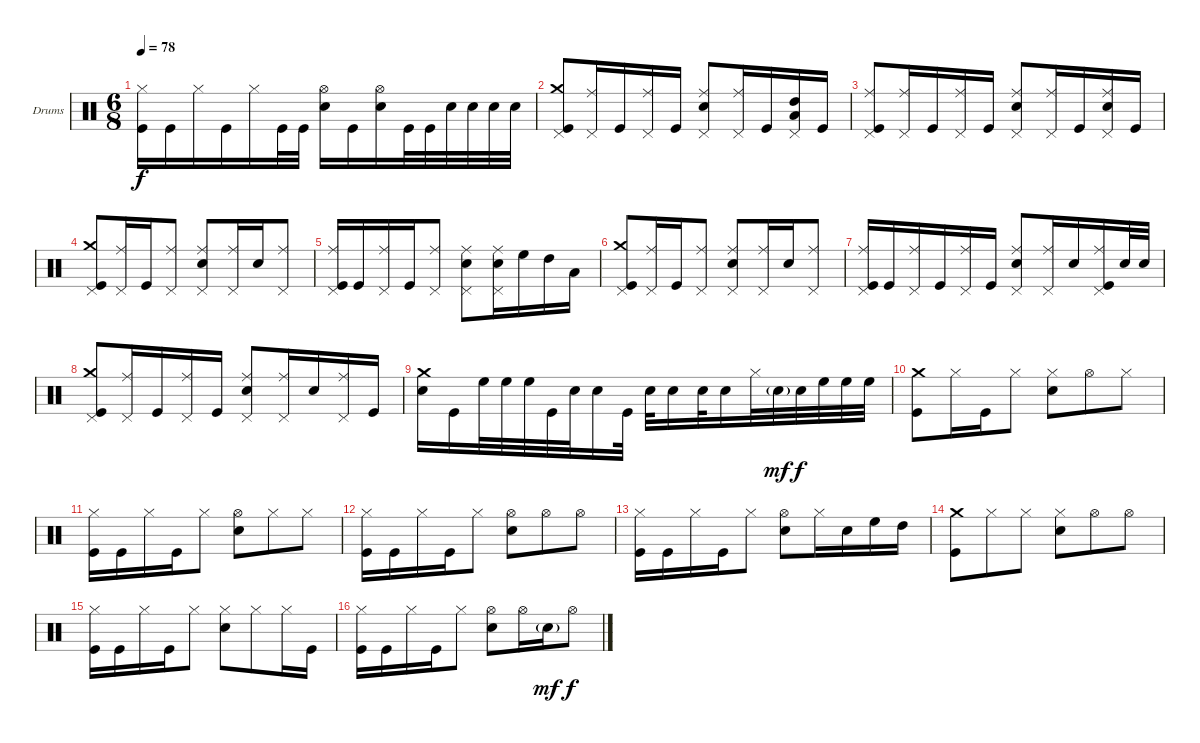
\defaultSystemsLayout 4
\bracketExtendMode groupsimilarinstruments
\firstSystemTrackNameOrientation horizontal
\otherSystemsTrackNameOrientation horizontal
\track ("Drums" "Drums") {instrument percussion}
\staff {score}
\articulation defaults
\ts (6 8)
\tempo 78
\clef neutral
\scale
0.333333
\ks c
("Hi-Hat (closed)" "Kick (hit)").16{dy f} "Kick (hit)".16 "Hi-Hat (closed)".16 "Kick (hit)".16 "Hi-Hat (closed)".16 "Kick (hit)".32 "Kick (hit)".32 ("Hi-Hat (open)" "Snare (hit) 2").16 "Kick (hit)".16 ("Hi-Hat (open)" "Snare (hit) 2").16 "Kick (hit)".32 "Kick (hit)".32 "Snare (hit) 2".32 "Snare (hit) 2".32 "Snare (hit) 2".32 "Snare (hit) 2".32 |
\scale
0.333333 ("Crash medium (hit)" "Pedal Hi-Hat (hit)" "Kick (hit)").8 ("Ride (middle)" "Pedal Hi-Hat (hit)").16 "Kick (hit)".16 ("Ride (middle)" "Pedal Hi-Hat (hit)").16 "Kick (hit)".16 ("Ride (middle)" "Pedal Hi-Hat (hit)" "Snare (hit) 2").8 ("Ride (middle)" "Pedal Hi-Hat (hit)").16 "Kick (hit)".16 ("Pedal Hi-Hat (hit)" "High Tom (hit)" "Low Tom (hit)").16 "Kick (hit)".16 |
\scale
0.333333 ("Ride (middle)" "Pedal Hi-Hat (hit)" "Kick (hit)").8 ("Ride (middle)" "Pedal Hi-Hat (hit)").16 "Kick (hit)".16 ("Ride (middle)" "Pedal Hi-Hat (hit)").16 "Kick (hit)".16 ("Ride (middle)" "Pedal Hi-Hat (hit)" "Snare (hit) 2").8 ("Ride (middle)" "Pedal Hi-Hat (hit)").16 "Kick (hit)".16 ("Ride (middle)" "Pedal Hi-Hat (hit)" "Snare (hit) 2").16 "Kick (hit)".16 |
\scale
0.333333 ("Crash medium (hit)" "Pedal Hi-Hat (hit)" "Kick (hit)").8 ("Ride (middle)" "Pedal Hi-Hat (hit)").16 "Kick (hit)".16 ("Ride (middle)" "Pedal Hi-Hat (hit)").8 ("Ride (middle)" "Pedal Hi-Hat (hit)" "Snare (hit) 2").8 ("Ride (middle)" "Pedal Hi-Hat (hit)").16 "Snare (hit) 2".16 ("Ride (middle)" "Pedal Hi-Hat (hit)").8 |
\scale
0.333333 ("Ride (middle)" "Pedal Hi-Hat (hit)" "Kick (hit)").16 "Kick (hit)".16 ("Ride (middle)" "Pedal Hi-Hat (hit)").16 "Kick (hit)".16 ("Ride (middle)" "Pedal Hi-Hat (hit)").8 ("Ride (middle)" "Pedal Hi-Hat (hit)" "Snare (hit) 2").8 ("Ride (middle)" "Pedal Hi-Hat (hit)" "Snare (hit) 2").16 "High Floor Tom (hit)".16 "High Tom (hit)".16 "Low Tom (hit)".16 |
\scale
0.333333 ("Crash medium (hit)" "Pedal Hi-Hat (hit)" "Kick (hit)").8 ("Ride (middle)" "Pedal Hi-Hat (hit)").16 "Kick (hit)".16 ("Ride (middle)" "Pedal Hi-Hat (hit)").8 ("Ride (middle)" "Pedal Hi-Hat (hit)" "Snare (hit) 2").8 ("Ride (middle)" "Pedal Hi-Hat (hit)").16 "Snare (hit) 2".16 ("Ride (middle)" "Pedal Hi-Hat (hit)").8 |
\scale
0.333333 ("Ride (middle)" "Pedal Hi-Hat (hit)" "Kick (hit)").16 "Kick (hit)".16 ("Ride (middle)" "Pedal Hi-Hat (hit)").16 "Kick (hit)".16 ("Ride (middle)" "Pedal Hi-Hat (hit)").16 "Kick (hit)".16 ("Ride (middle)" "Pedal Hi-Hat (hit)" "Snare (hit) 2").8 ("Ride (middle)" "Pedal Hi-Hat (hit)").16 "Snare (hit) 2".16 ("Ride (middle)" "Pedal Hi-Hat (hit)" "Kick (hit)").16 "Snare (hit) 2".32 "Snare (hit) 2".32 |
\scale
0.333333 ("Crash medium (hit)" "Pedal Hi-Hat (hit)" "Kick (hit)").8 ("Ride (middle)" "Pedal Hi-Hat (hit)").16 "Kick (hit)".16 ("Ride (middle)" "Pedal Hi-Hat (hit)").16 "Kick (hit)".16 ("Ride (middle)" "Pedal Hi-Hat (hit)" "Snare (hit) 2").8 ("Ride (middle)" "Pedal Hi-Hat (hit)").16 "Snare (hit) 2".16 ("Ride (middle)" "Pedal Hi-Hat (hit)").16 "Kick (hit)".16 |
\scale
0.333333 ("Crash medium (hit)" "Snare (hit) 2").16 "Kick (hit)".16 "High Floor Tom (hit)".32 "High Floor Tom (hit)".32 "High Floor Tom (hit)".32 "Kick (hit)".32 "Snare (hit) 2".32 "Snare (hit) 2".16 "Kick (hit)".32 "Snare (hit) 2".32 "Snare (hit) 2".16 "Snare (hit) 2".32 "Snare (hit) 2".16 "Hi-Hat (closed)".32 "Snare (hit) 2"{g}.32{dy mf} "Snare (hit) 2".32{dy f} "High Floor Tom (hit)".32 "High Floor Tom (hit)".32 "High Floor Tom (hit)".32 |
\scale
0.333333 ("Crash medium (hit)" "Kick (hit)").8 "Hi-Hat (closed)".16 "Kick (hit)".16 "Hi-Hat (closed)".8 ("Hi-Hat (closed)" "Snare (hit) 2").8 "Hi-Hat (open)".8 "Hi-Hat (closed)".8 |
\scale
0.333333 ("Hi-Hat (closed)" "Kick (hit)").16 "Kick (hit)".16 "Hi-Hat (closed)".16 "Kick (hit)".16 "Hi-Hat (closed)".8 ("Hi-Hat (open)" "Snare (hit) 2").8 "Hi-Hat (closed)".8 "Hi-Hat (closed)".8 |
\scale
0.333333 ("Hi-Hat (closed)" "Kick (hit)").16 "Kick (hit)".16 "Hi-Hat (closed)".16 "Kick (hit)".16 "Hi-Hat (closed)".8 ("Hi-Hat (open)" "Snare (hit) 2").8 "Hi-Hat (open)".8 "Hi-Hat (open)".8 |
\scale
0.333333 ("Hi-Hat (closed)" "Kick (hit)").16 "Kick (hit)".16 "Hi-Hat (closed)".16 "Kick (hit)".16 "Hi-Hat (closed)".8 ("Hi-Hat (open)" "Snare (hit) 2").8 "Hi-Hat (closed)".16 "Snare (hit) 2".16 "High Floor Tom (hit)".16 "High Tom (hit)".16 |
\scale
0.333333 ("Crash medium (hit)" "Kick (hit)").8 "Hi-Hat (closed)".8 "Hi-Hat (closed)".8 ("Hi-Hat (closed)" "Snare (hit) 2").8 "Hi-Hat (open)".8 "Hi-Hat (open)".8 |
\scale
0.333333 ("Hi-Hat (closed)" "Kick (hit)").16 "Kick (hit)".16 "Hi-Hat (closed)".16 "Kick (hit)".16 "Hi-Hat (closed)".8 ("Hi-Hat (closed)" "Snare (hit) 2").8 "Hi-Hat (closed)".8 "Hi-Hat (closed)".16 "Kick (hit)".16 |
\scale
0.333333 ("Hi-Hat (closed)" "Kick (hit)").16 "Kick (hit)".16 "Hi-Hat (closed)".16 "Kick (hit)".16 "Hi-Hat (closed)".8 ("Hi-Hat (open)" "Snare (hit) 2").8 "Hi-Hat (open)".16 "Snare (hit) 2"{g}.16{dy mf} "Hi-Hat (open)".8{dy f}
